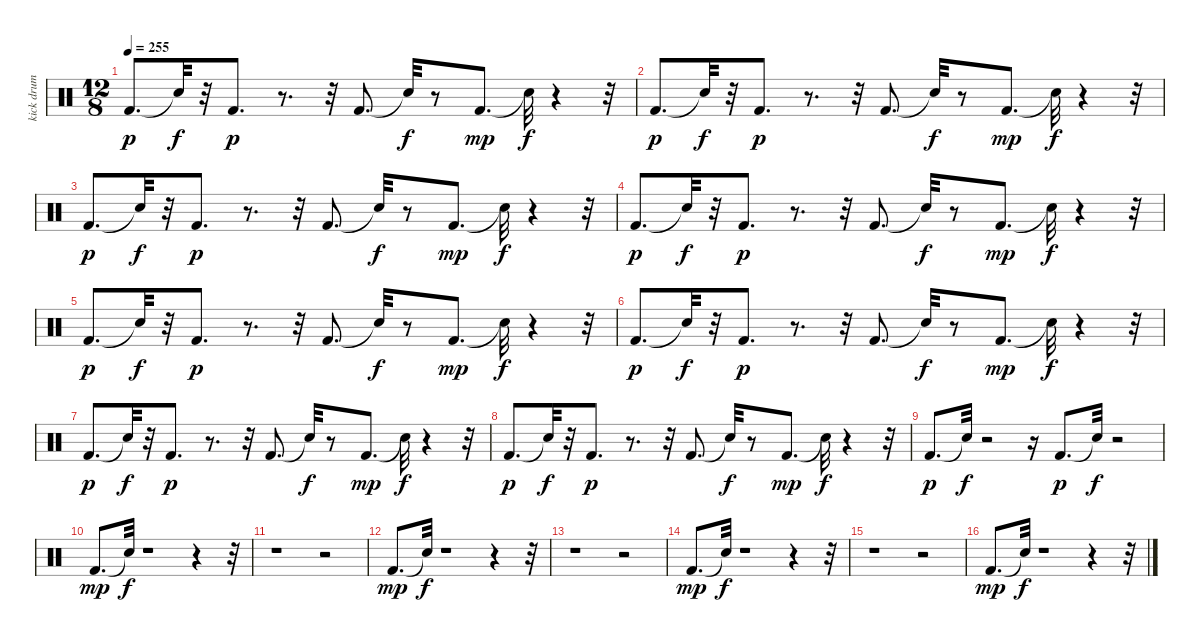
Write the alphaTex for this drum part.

\track ("kick drum           " "kick drum ") {instrument percussion}
\staff {score}
\articulation defaults
\ts (12 8)
\tempo 255
\clef neutral
\ks c "Kick (hit) 2".8{d dy p} "Snare (hit)"{t}.32{dy f}
r.32 "Kick (hit) 2".8{d dy p} r.8{d} r.32 "Kick (hit) 2".8{d} "Snare (hit)"{t}.32{dy f} r.8 "Kick (hit) 2".8{d dy mp} "Snare (hit)"{t}.32{dy f} r.4 r.32 |
"Kick (hit) 2".8{d dy p} "Snare (hit)"{t}.32{dy f} r.32 "Kick (hit) 2".8{d dy p} r.8{d} r.32 "Kick (hit) 2".8{d} "Snare (hit)"{t}.32{dy f} r.8 "Kick (hit) 2".8{d dy mp} "Snare (hit)"{t}.32{dy f} r.4 r.32 |
"Kick (hit) 2".8{d dy p} "Snare (hit)"{t}.32{dy f} r.32 "Kick (hit) 2".8{d dy p} r.8{d} r.32 "Kick (hit) 2".8{d} "Snare (hit)"{t}.32{dy f} r.8 "Kick (hit) 2".8{d dy mp} "Snare (hit)"{t}.32{dy f} r.4 r.32 |
"Kick (hit) 2".8{d dy p} "Snare (hit)"{t}.32{dy f} r.32 "Kick (hit) 2".8{d dy p} r.8{d} r.32 "Kick (hit) 2".8{d} "Snare (hit)"{t}.32{dy f} r.8 "Kick (hit) 2".8{d dy mp} "Snare (hit)"{t}.32{dy f} r.4 r.32 |
"Kick (hit) 2".8{d dy p} "Snare (hit)"{t}.32{dy f} r.32 "Kick (hit) 2".8{d dy p} r.8{d} r.32 "Kick (hit) 2".8{d} "Snare (hit)"{t}.32{dy f} r.8 "Kick (hit) 2".8{d dy mp} "Snare (hit)"{t}.32{dy f} r.4 r.32 |
"Kick (hit) 2".8{d dy p} "Snare (hit)"{t}.32{dy f} r.32 "Kick (hit) 2".8{d dy p} r.8{d} r.32 "Kick (hit) 2".8{d} "Snare (hit)"{t}.32{dy f} r.8 "Kick (hit) 2".8{d dy mp} "Snare (hit)"{t}.32{dy f} r.4 r.32 |
"Kick (hit) 2".8{d dy p} "Snare (hit)"{t}.32{dy f} r.32 "Kick (hit) 2".8{d dy p} r.8{d} r.32 "Kick (hit) 2".8{d} "Snare (hit)"{t}.32{dy f} r.8 "Kick (hit) 2".8{d dy mp} "Snare (hit)"{t}.32{dy f} r.4 r.32 |
"Kick (hit) 2".8{d dy p} "Snare (hit)"{t}.32{dy f} r.32 "Kick (hit) 2".8{d dy p} r.8{d} r.32 "Kick (hit) 2".8{d} "Snare (hit)"{t}.32{dy f} r.8 "Kick (hit) 2".8{d dy mp} "Snare (hit)"{t}.32{dy f} r.4 r.32 |
"Kick (hit) 2".8{d dy p} "Snare (hit)"{t}.32{dy f} r.2 r.16 "Kick (hit) 2".8{d dy p} "Snare (hit)"{t}.32{dy f} r.2 |
"Kick (hit) 2".8{d dy mp} "Snare (hit)"{t}.32{dy f} r.1 r.4 r.32 |
r.1 r.2 |
"Kick (hit) 2".8{d dy mp} "Snare (hit)"{t}.32{dy f} r.1 r.4 r.32 |
r.1 r.2 |
"Kick (hit) 2".8{d dy mp} "Snare (hit)"{t}.32{dy f} r.1 r.4 r.32 |
r.1 r.2 |
"Kick (hit) 2".8{d dy mp} "Snare (hit)"{t}.32{dy f} r.1 r.4 r.32
